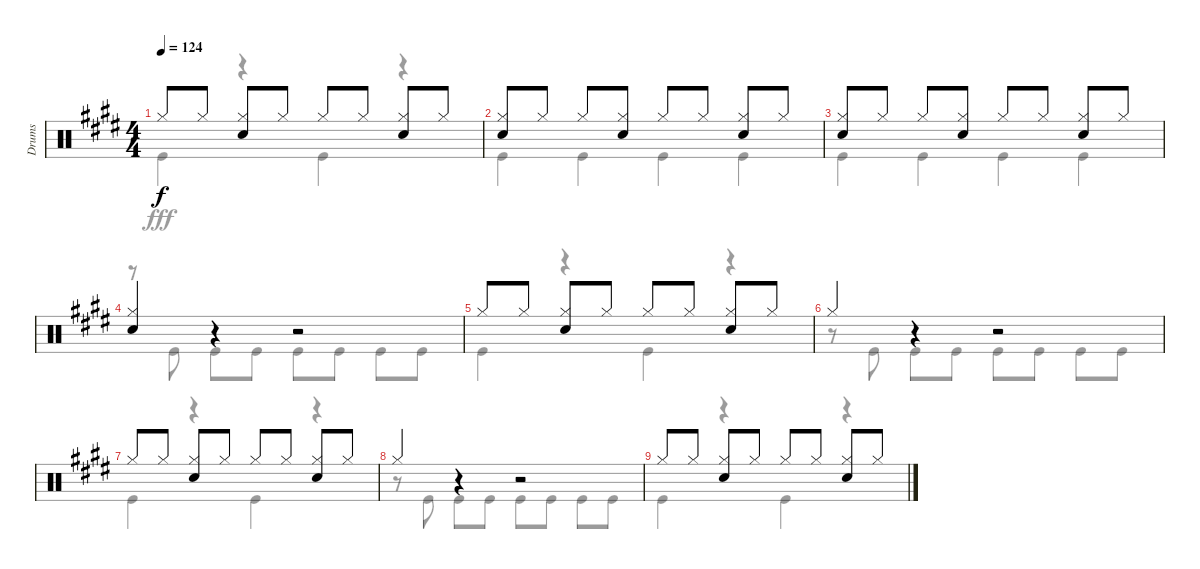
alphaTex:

\track ("Drums" "Drums") {instrument percussion}
\staff {score}
\articulation defaults
\voice
\ts (4 4)
\tempo 124
\clef neutral
\ks e "Hi-Hat (closed)".8{dy f} "Hi-Hat (closed)".8
("Hi-Hat (closed)" "Snare (hit) 2").8 "Hi-Hat (closed)".8 "Hi-Hat (closed)".8 "Hi-Hat (closed)".8 ("Hi-Hat (closed)" "Snare (hit) 2").8 "Hi-Hat (closed)".8 |
("Hi-Hat (closed)" "Snare (hit) 2").8 "Hi-Hat (closed)".8 "Hi-Hat (closed)".8 ("Hi-Hat (closed)" "Snare (hit) 2").8 "Hi-Hat (closed)".8 "Hi-Hat (closed)".8 ("Hi-Hat (closed)" "Snare (hit) 2").8 "Hi-Hat (closed)".8 |
("Hi-Hat (closed)" "Snare (hit) 2").8 "Hi-Hat (closed)".8 "Hi-Hat (closed)".8 ("Hi-Hat (closed)" "Snare (hit) 2").8 "Hi-Hat (closed)".8 "Hi-Hat (closed)".8 ("Hi-Hat (closed)" "Snare (hit) 2").8 "Hi-Hat (closed)".8 |
("Hi-Hat (closed)" "Snare (hit) 2").4 r.4 r.2 |
"Hi-Hat (closed)".8 "Hi-Hat (closed)".8 ("Hi-Hat (closed)" "Snare (hit) 2").8 "Hi-Hat (closed)".8 "Hi-Hat (closed)".8 "Hi-Hat (closed)".8 ("Hi-Hat (closed)" "Snare (hit) 2").8 "Hi-Hat (closed)".8 |
"Hi-Hat (closed)".4 r.4 r.2 |
"Hi-Hat (closed)".8 "Hi-Hat (closed)".8 ("Hi-Hat (closed)" "Snare (hit) 2").8 "Hi-Hat (closed)".8 "Hi-Hat (closed)".8 "Hi-Hat (closed)".8 ("Hi-Hat (closed)" "Snare (hit) 2").8 "Hi-Hat (closed)".8 |
"Hi-Hat (closed)".4 r.4 r.2 |
"Hi-Hat (closed)".8 "Hi-Hat (closed)".8 ("Hi-Hat (closed)" "Snare (hit) 2").8 "Hi-Hat (closed)".8 "Hi-Hat (closed)".8 "Hi-Hat (closed)".8 ("Hi-Hat (closed)" "Snare (hit) 2").8 "Hi-Hat (closed)".8
\voice
\clef neutral
\ottava regular
\simile none
\ks e "Kick (hit)".4{dy fff}
r.4 "Kick (hit)".4 r.4 |
"Kick (hit)".4 "Kick (hit)".4 "Kick (hit)".4 "Kick (hit)".4 |
"Kick (hit)".4 "Kick (hit)".4 "Kick (hit)".4 "Kick (hit)".4 |
r.8 "Kick (hit)".8 "Kick (hit)".8 "Kick (hit)".8 "Kick (hit)".8 "Kick (hit)".8 "Kick (hit)".8 "Kick (hit)".8 |
"Kick (hit)".4 r.4 "Kick (hit)".4 r.4 |
r.8 "Kick (hit)".8 "Kick (hit)".8 "Kick (hit)".8 "Kick (hit)".8 "Kick (hit)".8 "Kick (hit)".8 "Kick (hit)".8 |
"Kick (hit)".4 r.4 "Kick (hit)".4 r.4 |
r.8 "Kick (hit)".8 "Kick (hit)".8 "Kick (hit)".8 "Kick (hit)".8 "Kick (hit)".8 "Kick (hit)".8 "Kick (hit)".8 |
"Kick (hit)".4 r.4 "Kick (hit)".4 r.4
